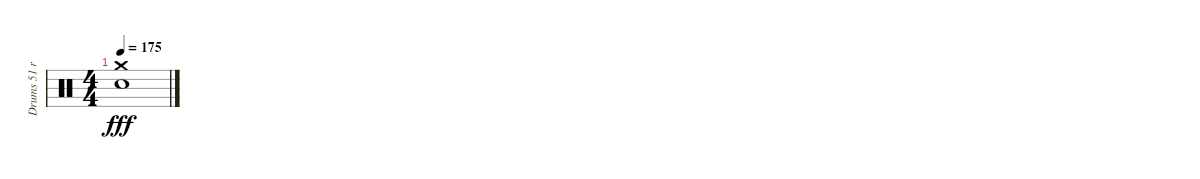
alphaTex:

\track ("Drums 51 ride" "Drums 51 r") {instrument percussion}
\staff {score}
\articulation defaults
\ts (4 4)
\tempo 175
\clef neutral
\ks c
("Crash medium (hit)" "Snare (hit) 2").1{dy fff}
